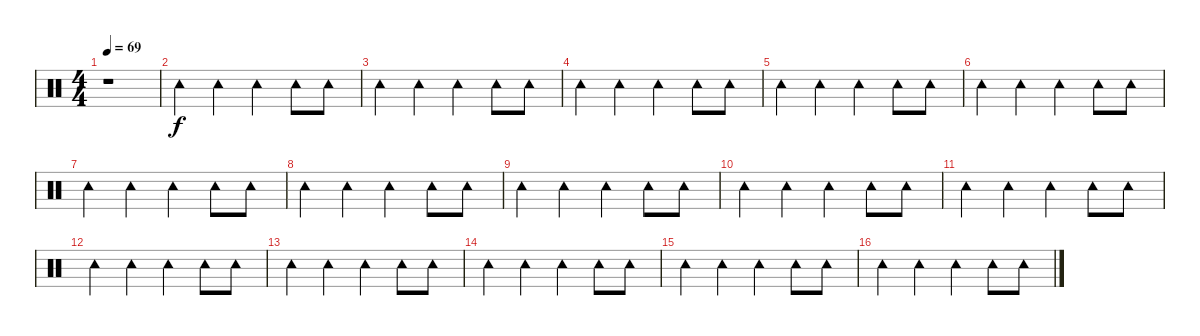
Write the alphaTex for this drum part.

\track "" {instrument percussion}
\staff {score}
\articulation defaults
\ts (4 4)
\tempo 69
\clef neutral
\ks c
r.1{dy f} |
"Tambourine (hit)".4 "Tambourine (hit)".4 "Tambourine (hit)".4 "Tambourine (hit)".8 "Tambourine (hit)".8 |
"Tambourine (hit)".4 "Tambourine (hit)".4 "Tambourine (hit)".4 "Tambourine (hit)".8 "Tambourine (hit)".8 |
"Tambourine (hit)".4 "Tambourine (hit)".4 "Tambourine (hit)".4 "Tambourine (hit)".8 "Tambourine (hit)".8 |
"Tambourine (hit)".4 "Tambourine (hit)".4 "Tambourine (hit)".4 "Tambourine (hit)".8 "Tambourine (hit)".8 |
"Tambourine (hit)".4 "Tambourine (hit)".4 "Tambourine (hit)".4 "Tambourine (hit)".8 "Tambourine (hit)".8 |
"Tambourine (hit)".4 "Tambourine (hit)".4 "Tambourine (hit)".4 "Tambourine (hit)".8 "Tambourine (hit)".8 |
"Tambourine (hit)".4 "Tambourine (hit)".4 "Tambourine (hit)".4 "Tambourine (hit)".8 "Tambourine (hit)".8 |
"Tambourine (hit)".4 "Tambourine (hit)".4 "Tambourine (hit)".4 "Tambourine (hit)".8 "Tambourine (hit)".8 |
"Tambourine (hit)".4 "Tambourine (hit)".4 "Tambourine (hit)".4 "Tambourine (hit)".8 "Tambourine (hit)".8 |
"Tambourine (hit)".4 "Tambourine (hit)".4 "Tambourine (hit)".4 "Tambourine (hit)".8 "Tambourine (hit)".8 |
"Tambourine (hit)".4 "Tambourine (hit)".4 "Tambourine (hit)".4 "Tambourine (hit)".8 "Tambourine (hit)".8 |
"Tambourine (hit)".4 "Tambourine (hit)".4 "Tambourine (hit)".4 "Tambourine (hit)".8 "Tambourine (hit)".8 |
"Tambourine (hit)".4 "Tambourine (hit)".4 "Tambourine (hit)".4 "Tambourine (hit)".8 "Tambourine (hit)".8 |
"Tambourine (hit)".4 "Tambourine (hit)".4 "Tambourine (hit)".4 "Tambourine (hit)".8 "Tambourine (hit)".8 |
"Tambourine (hit)".4 "Tambourine (hit)".4 "Tambourine (hit)".4 "Tambourine (hit)".8 "Tambourine (hit)".8
